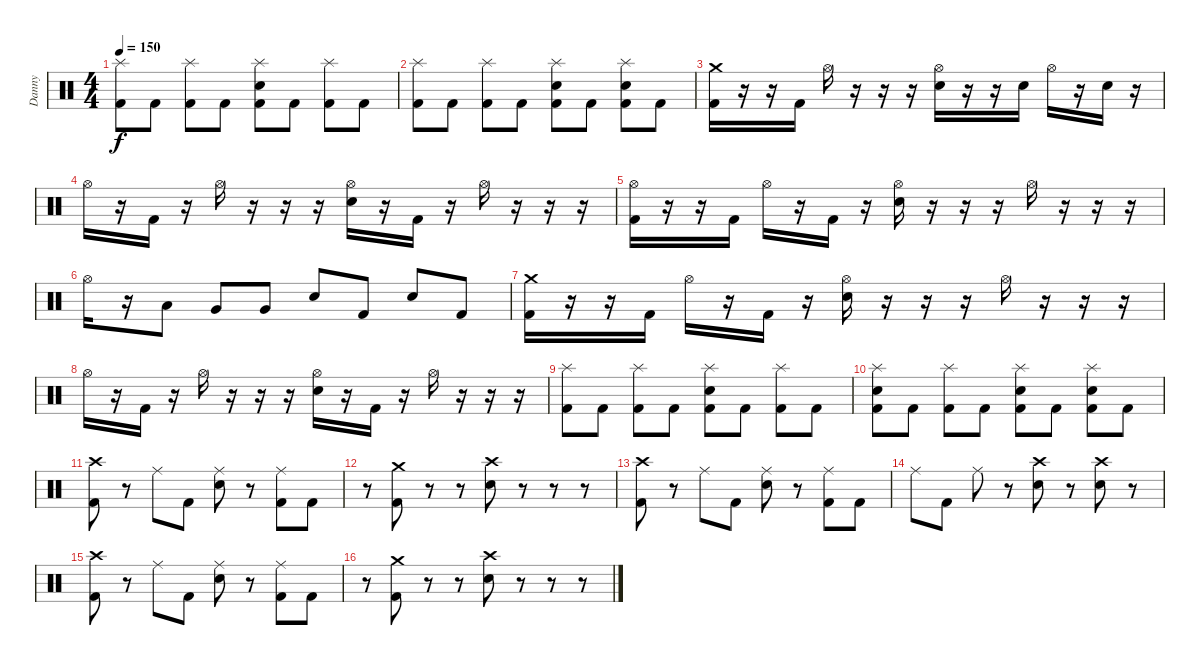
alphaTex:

\track ("Danny" "Danny") {instrument percussion}
\staff {score}
\articulation defaults
\ts (4 4)
\tempo 150
\clef neutral
\ks c
("Splash (hit)" "Kick (hit) 2").8{dy f} "Kick (hit) 2".8 ("Splash (hit)" "Kick (hit) 2").8 "Kick (hit) 2".8 ("Splash (hit)" "Electric Snare (hit)" "Kick (hit) 2").8 "Kick (hit) 2".8 ("Splash (hit)" "Kick (hit) 2").8 "Kick (hit) 2".8 |
("Splash (hit)" "Kick (hit) 2").8 "Kick (hit) 2".8 ("Splash (hit)" "Kick (hit) 2").8 "Kick (hit) 2".8 ("Splash (hit)" "Electric Snare (hit)" "Kick (hit) 2").8 "Kick (hit) 2".8 ("Splash (hit)" "Electric Snare (hit)" "Kick (hit) 2").8 "Kick (hit) 2".8 |
("Crash medium (hit)" "Kick (hit) 2").16 r.16 r.16 "Kick (hit) 2".16 "Hi-Hat (open)".16 r.16 r.16 r.16 ("Hi-Hat (open)" "Electric Snare (hit)").16 r.16 r.16 "Electric Snare (hit)".16 "Hi-Hat (open)".16 r.16 "Electric Snare (hit)".16 r.16 |
"Hi-Hat (open)".16 r.16 "Kick (hit) 2".16 r.16 "Hi-Hat (open)".16 r.16 r.16 r.16 ("Hi-Hat (open)" "Electric Snare (hit)").16 r.16 "Kick (hit) 2".16 r.16 "Hi-Hat (open)".16 r.16 r.16 r.16 |
("Hi-Hat (open)" "Kick (hit) 2").16 r.16 r.16 "Kick (hit) 2".16 "Hi-Hat (open)".16 r.16 "Kick (hit) 2".16 r.16 ("Hi-Hat (open)" "Electric Snare (hit)").16 r.16 r.16 r.16 "Hi-Hat (open)".16 r.16 r.16 r.16 |
"Hi-Hat (open)".16 r.16 "Low Tom (hit)".8 "Very Low Tom (hit)".8 "Very Low Tom (hit)".8 "Electric Snare (hit)".8 "Kick (hit) 2".8 "Electric Snare (hit)".8 "Kick (hit) 2".8 |
("Crash medium (hit)" "Kick (hit) 2").16 r.16 r.16 "Kick (hit) 2".16 "Hi-Hat (open)".16 r.16 "Kick (hit) 2".16 r.16 ("Hi-Hat (open)" "Electric Snare (hit)").16 r.16 r.16 r.16 "Hi-Hat (open)".16 r.16 r.16 r.16 |
"Hi-Hat (open)".16 r.16 "Kick (hit) 2".16 r.16 "Hi-Hat (open)".16 r.16 r.16 r.16 ("Hi-Hat (open)" "Electric Snare (hit)").16 r.16 "Kick (hit) 2".16 r.16 "Hi-Hat (open)".16 r.16 r.16 r.16 |
("Splash (hit)" "Kick (hit) 2").8 "Kick (hit) 2".8 ("Splash (hit)" "Kick (hit) 2").8 "Kick (hit) 2".8 ("Splash (hit)" "Electric Snare (hit)" "Kick (hit) 2").8 "Kick (hit) 2".8 ("Splash (hit)" "Kick (hit) 2").8 "Kick (hit) 2".8 |
("Splash (hit)" "Electric Snare (hit)" "Kick (hit) 2").8 "Kick (hit) 2".8 ("Splash (hit)" "Kick (hit) 2").8 "Kick (hit) 2".8 ("Splash (hit)" "Electric Snare (hit)" "Kick (hit) 2").8 "Kick (hit) 2".8 ("Splash (hit)" "Electric Snare (hit)" "Kick (hit) 2").8 "Kick (hit) 2".8 |
("Crash high (hit)" "Kick (hit) 2").8 r.8 "Ride (middle)".8 "Kick (hit) 2".8 ("Ride (middle)" "Electric Snare (hit)").8 r.8 ("Ride (middle)" "Kick (hit) 2").8 "Kick (hit) 2".8 |
r.8 ("Crash medium (hit)" "Kick (hit) 2").8 r.8 r.8 ("Crash high (hit)" "Electric Snare (hit)").8 r.8 r.8 r.8 |
("Crash high (hit)" "Kick (hit) 2").8 r.8 "Ride (middle)".8 "Kick (hit) 2".8 ("Ride (middle)" "Electric Snare (hit)").8 r.8 ("Ride (middle)" "Kick (hit) 2").8 "Kick (hit) 2".8 |
"Ride (middle)".8 "Kick (hit) 2".8 "Ride (middle)".8 r.8 ("Crash high (hit)" "Electric Snare (hit)").8 r.8 ("Crash high (hit)" "Electric Snare (hit)").8 r.8 |
("Crash high (hit)" "Kick (hit) 2").8 r.8 "Ride (middle)".8 "Kick (hit) 2".8 ("Ride (middle)" "Electric Snare (hit)").8 r.8 ("Ride (middle)" "Kick (hit) 2").8 "Kick (hit) 2".8 |
r.8 ("Crash medium (hit)" "Kick (hit) 2").8 r.8 r.8 ("Crash high (hit)" "Electric Snare (hit)").8 r.8 r.8 r.8
